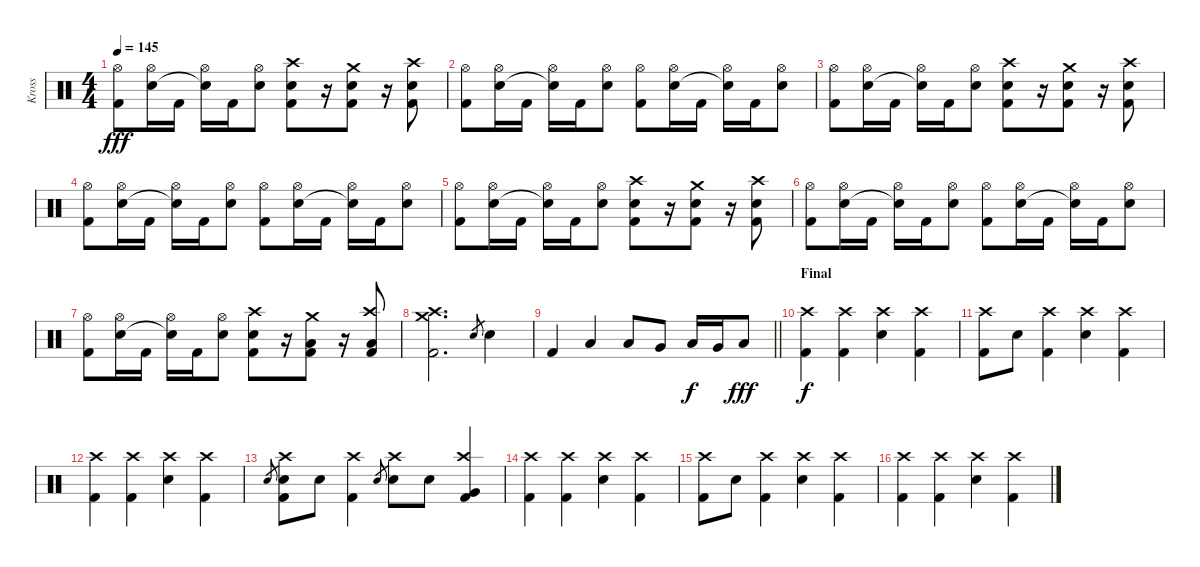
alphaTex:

\track ("Kross" "Kross") {instrument percussion}
\staff {score}
\articulation defaults
\ts (4 4)
\tempo 145
\clef neutral
\ks c
("Hi-Hat (open)" "Kick (hit) 2").8{dy fff} ("Hi-Hat (open)" "Electric Snare (hit)").16 "Kick (hit) 2".16 ("Hi-Hat (open)" "Snare (hit)"{t}).16 "Kick (hit) 2".16 ("Hi-Hat (open)" "Electric Snare (hit)").8 ("Crash high (hit)" "Electric Snare (hit)" "Kick (hit) 2").8 r.16 ("Crash medium (hit)" "Electric Snare (hit)" "Kick (hit) 2").8 r.16 ("Crash high (hit)" "Electric Snare (hit)" "Kick (hit) 2").8 |
("Hi-Hat (open)" "Kick (hit) 2").8 ("Hi-Hat (open)" "Electric Snare (hit)").16 "Kick (hit) 2".16 ("Hi-Hat (open)" "Snare (hit)"{t}).16 "Kick (hit) 2".16 ("Hi-Hat (open)" "Electric Snare (hit)").8 ("Hi-Hat (open)" "Kick (hit) 2").8 ("Hi-Hat (open)" "Electric Snare (hit)").16 "Kick (hit) 2".16 ("Hi-Hat (open)" "Snare (hit)"{t}).16 "Kick (hit) 2".16 ("Hi-Hat (open)" "Electric Snare (hit)").8 |
("Hi-Hat (open)" "Kick (hit) 2").8 ("Hi-Hat (open)" "Electric Snare (hit)").16 "Kick (hit) 2".16 ("Hi-Hat (open)" "Snare (hit)"{t}).16 "Kick (hit) 2".16 ("Hi-Hat (open)" "Electric Snare (hit)").8 ("Crash high (hit)" "Electric Snare (hit)" "Kick (hit) 2").8 r.16 ("Crash medium (hit)" "Electric Snare (hit)" "Kick (hit) 2").8 r.16 ("Crash high (hit)" "Electric Snare (hit)" "Kick (hit) 2").8 |
("Hi-Hat (open)" "Kick (hit) 2").8 ("Hi-Hat (open)" "Electric Snare (hit)").16 "Kick (hit) 2".16 ("Hi-Hat (open)" "Snare (hit)"{t}).16 "Kick (hit) 2".16 ("Hi-Hat (open)" "Electric Snare (hit)").8 ("Hi-Hat (open)" "Kick (hit) 2").8 ("Hi-Hat (open)" "Electric Snare (hit)").16 "Kick (hit) 2".16 ("Hi-Hat (open)" "Snare (hit)"{t}).16 "Kick (hit) 2".16 ("Hi-Hat (open)" "Electric Snare (hit)").8 |
("Hi-Hat (open)" "Kick (hit) 2").8 ("Hi-Hat (open)" "Electric Snare (hit)").16 "Kick (hit) 2".16 ("Hi-Hat (open)" "Snare (hit)"{t}).16 "Kick (hit) 2".16 ("Hi-Hat (open)" "Electric Snare (hit)").8 ("Crash high (hit)" "Electric Snare (hit)" "Kick (hit) 2").8 r.16 ("Crash medium (hit)" "Electric Snare (hit)" "Kick (hit) 2").8 r.16 ("Crash high (hit)" "Electric Snare (hit)" "Kick (hit) 2").8 |
("Hi-Hat (open)" "Kick (hit) 2").8 ("Hi-Hat (open)" "Electric Snare (hit)").16 "Kick (hit) 2".16 ("Hi-Hat (open)" "Snare (hit)"{t}).16 "Kick (hit) 2".16 ("Hi-Hat (open)" "Electric Snare (hit)").8 ("Hi-Hat (open)" "Kick (hit) 2").8 ("Hi-Hat (open)" "Electric Snare (hit)").16 "Kick (hit) 2".16 ("Hi-Hat (open)" "Snare (hit)"{t}).16 "Kick (hit) 2".16 ("Hi-Hat (open)" "Electric Snare (hit)").8 |
("Hi-Hat (open)" "Kick (hit) 2").8 ("Hi-Hat (open)" "Electric Snare (hit)").16 "Kick (hit) 2".16 ("Hi-Hat (open)" "Snare (hit)"{t}).16 "Kick (hit) 2".16 ("Hi-Hat (open)" "Electric Snare (hit)").8 ("Crash high (hit)" "Electric Snare (hit)" "Kick (hit) 2").8 r.16 ("Crash medium (hit)" "Low Tom (hit)" "Kick (hit) 2").8 r.16 ("Crash high (hit)" "Low Tom (hit)" "Kick (hit) 2").8 |
("Crash medium (hit)" "Crash high (hit)" "Kick (hit) 2").2{d} "Electric Snare (hit)".8{gr} "Electric Snare (hit)".4 |
\barLineRight lightlight "Kick (hit) 2".4 "Low Tom (hit)".4 "Low Tom (hit)".8 "Very Low Tom (hit)".8 "Low Tom (hit)".16{dy f} "Very Low Tom (hit)".16 "Low Floor Tom (hit)".8{dy fff}
|
\section ("" "Final")
("Crash high (hit)" "Kick (hit) 2").4{dy f} ("Crash high (hit)" "Kick (hit) 2").4 ("Crash high (hit)" "Electric Snare (hit)").4 ("Crash high (hit)" "Kick (hit) 2").4 |
("Crash high (hit)" "Kick (hit) 2").8 "Electric Snare (hit)".8 ("Crash high (hit)" "Kick (hit) 2").4 ("Crash high (hit)" "Electric Snare (hit)").4 ("Crash high (hit)" "Kick (hit) 2").4 |
("Crash high (hit)" "Kick (hit) 2").4 ("Crash high (hit)" "Kick (hit) 2").4 ("Crash high (hit)" "Electric Snare (hit)").4 ("Crash high (hit)" "Kick (hit) 2").4 |
"Electric Snare (hit)".8{gr} ("Crash high (hit)" "Electric Snare (hit)" "Kick (hit) 2").8 "Electric Snare (hit)".8 ("Crash high (hit)" "Kick (hit) 2").4 "Electric Snare (hit)".8{gr} ("Crash high (hit)" "Electric Snare (hit)").8 "Electric Snare (hit)".8 ("Crash high (hit)" "Very Low Tom (hit)" "Kick (hit) 2").4 |
("Crash high (hit)" "Kick (hit) 2").4 ("Crash high (hit)" "Kick (hit) 2").4 ("Crash high (hit)" "Electric Snare (hit)").4 ("Crash high (hit)" "Kick (hit) 2").4 |
("Crash high (hit)" "Kick (hit) 2").8 "Electric Snare (hit)".8 ("Crash high (hit)" "Kick (hit) 2").4 ("Crash high (hit)" "Electric Snare (hit)").4 ("Crash high (hit)" "Kick (hit) 2").4 |
("Crash high (hit)" "Kick (hit) 2").4 ("Crash high (hit)" "Kick (hit) 2").4 ("Crash high (hit)" "Electric Snare (hit)").4 ("Crash high (hit)" "Kick (hit) 2").4
